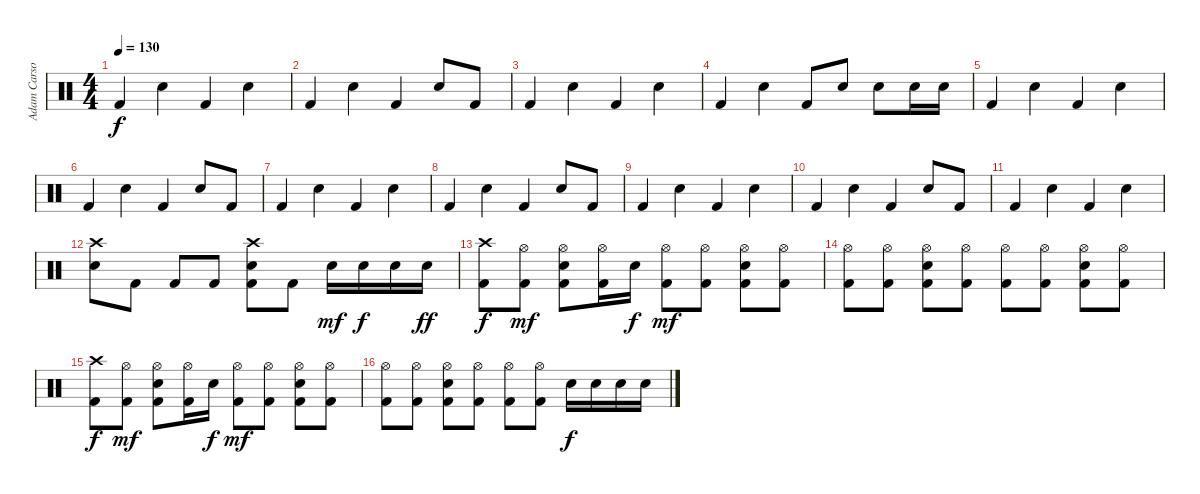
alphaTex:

\track ("Adam Carson" "Adam Carso") {instrument percussion}
\staff {score}
\articulation defaults
\ts (4 4)
\tempo 130
\clef neutral
\ks c "Kick (hit) 2".4{dy f} "Electric Snare (hit)".4 "Kick (hit) 2".4 "Electric Snare (hit)".4
|
"Kick (hit) 2".4 "Electric Snare (hit)".4 "Kick (hit) 2".4 "Electric Snare (hit)".8 "Kick (hit) 2".8 |
"Kick (hit) 2".4 "Electric Snare (hit)".4 "Kick (hit) 2".4 "Electric Snare (hit)".4 |
"Kick (hit) 2".4 "Electric Snare (hit)".4 "Kick (hit) 2".8 "Electric Snare (hit)".8 "Electric Snare (hit)".8 "Electric Snare (hit)".16 "Electric Snare (hit)".16 |
"Kick (hit) 2".4 "Electric Snare (hit)".4 "Kick (hit) 2".4 "Electric Snare (hit)".4 |
"Kick (hit) 2".4 "Electric Snare (hit)".4 "Kick (hit) 2".4 "Electric Snare (hit)".8 "Kick (hit) 2".8 |
"Kick (hit) 2".4 "Electric Snare (hit)".4 "Kick (hit) 2".4 "Electric Snare (hit)".4 |
"Kick (hit) 2".4 "Electric Snare (hit)".4 "Kick (hit) 2".4 "Electric Snare (hit)".8 "Kick (hit) 2".8 |
"Kick (hit) 2".4 "Electric Snare (hit)".4 "Kick (hit) 2".4 "Electric Snare (hit)".4 |
"Kick (hit) 2".4 "Electric Snare (hit)".4 "Kick (hit) 2".4 "Electric Snare (hit)".8 "Kick (hit) 2".8 |
"Kick (hit) 2".4 "Electric Snare (hit)".4 "Kick (hit) 2".4 "Electric Snare (hit)".4 |
("Crash high (hit)" "Electric Snare (hit)").8 "Kick (hit) 2".8 "Kick (hit) 2".8 "Kick (hit) 2".8 ("Crash high (hit)" "Electric Snare (hit)" "Kick (hit) 2").8 "Kick (hit) 2".8 "Electric Snare (hit)".16{dy mf} "Electric Snare (hit)".16{dy f} "Electric Snare (hit)".16 "Electric Snare (hit)".16{dy ff} |
("Crash high (hit)" "Kick (hit) 2").8{dy f} ("Hi-Hat (open)" "Kick (hit) 2").8{dy mf} ("Hi-Hat (open)" "Electric Snare (hit)" "Kick (hit) 2").8 ("Hi-Hat (open)" "Kick (hit) 2").16 "Electric Snare (hit)".16{dy f} ("Hi-Hat (open)" "Kick (hit) 2").8{dy mf} ("Hi-Hat (open)" "Kick (hit) 2").8 ("Hi-Hat (open)" "Electric Snare (hit)" "Kick (hit) 2").8 ("Hi-Hat (open)" "Kick (hit) 2").8 |
("Hi-Hat (open)" "Kick (hit) 2").8 ("Hi-Hat (open)" "Kick (hit) 2").8 ("Hi-Hat (open)" "Electric Snare (hit)" "Kick (hit) 2").8 ("Hi-Hat (open)" "Kick (hit) 2").8 ("Hi-Hat (open)" "Kick (hit) 2").8 ("Hi-Hat (open)" "Kick (hit) 2").8 ("Hi-Hat (open)" "Electric Snare (hit)" "Kick (hit) 2").8 ("Hi-Hat (open)" "Kick (hit) 2").8 |
("Crash high (hit)" "Kick (hit) 2").8{dy f} ("Hi-Hat (open)" "Kick (hit) 2").8{dy mf} ("Hi-Hat (open)" "Electric Snare (hit)" "Kick (hit) 2").8 ("Hi-Hat (open)" "Kick (hit) 2").16 "Electric Snare (hit)".16{dy f} ("Hi-Hat (open)" "Kick (hit) 2").8{dy mf} ("Hi-Hat (open)" "Kick (hit) 2").8 ("Hi-Hat (open)" "Electric Snare (hit)" "Kick (hit) 2").8 ("Hi-Hat (open)" "Kick (hit) 2").8 |
("Hi-Hat (open)" "Kick (hit) 2").8 ("Hi-Hat (open)" "Kick (hit) 2").8 ("Hi-Hat (open)" "Electric Snare (hit)" "Kick (hit) 2").8 ("Hi-Hat (open)" "Kick (hit) 2").8 ("Hi-Hat (open)" "Kick (hit) 2").8 ("Hi-Hat (open)" "Kick (hit) 2").8 "Electric Snare (hit)".16{dy f} "Electric Snare (hit)".16 "Electric Snare (hit)".16 "Electric Snare (hit)".16
